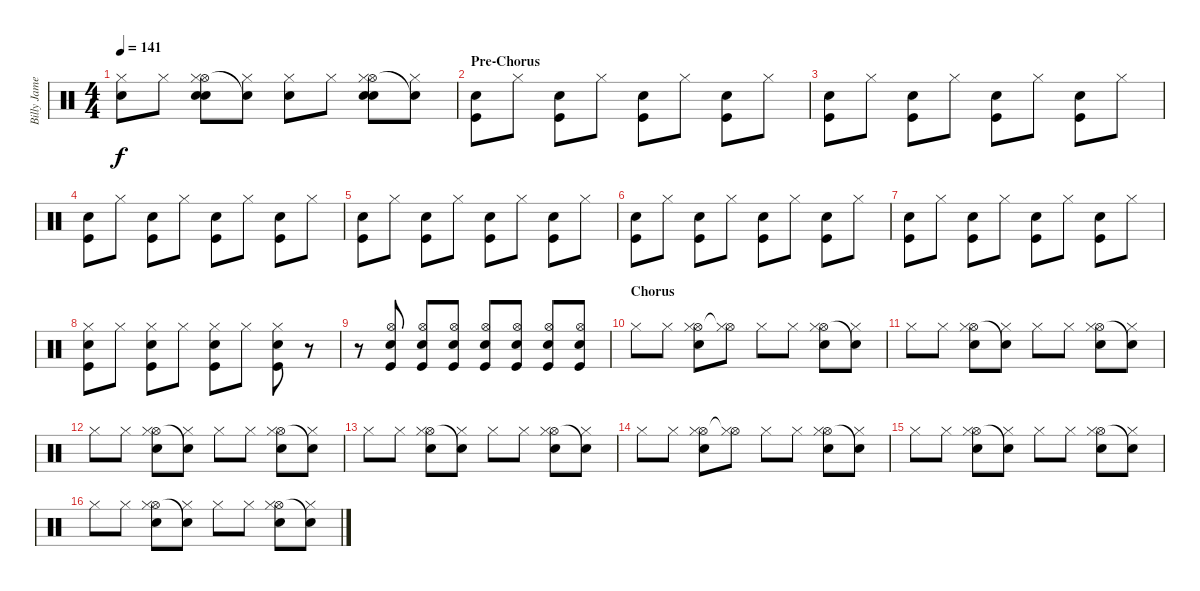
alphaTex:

\track ("Billy James (Drums)" "Billy Jame") {instrument percussion}
\staff {score}
\articulation defaults
\ts (4 4)
\tempo 141
\clef neutral
\ks c
("Hi-Hat (closed)" "Snare (hit) 2").8{dy f} "Hi-Hat (closed)".8 ("Hi-Hat (open)" "Snare (hit) 2" "Hi-Hat (closed)" "Snare (hit) 2").8 ("Snare (hit)"{t} "Hi-Hat (closed)").8 ("Hi-Hat (closed)" "Snare (hit) 2").8 "Hi-Hat (closed)".8 ("Hi-Hat (open)" "Snare (hit) 2" "Hi-Hat (closed)" "Snare (hit) 2").8 ("Snare (hit)"{t} "Hi-Hat (closed)").8 |
\section ("" "Pre-Chorus")
("Kick (hit)" "Snare (hit) 2").8 "Hi-Hat (closed)".8 ("Kick (hit)" "Snare (hit) 2").8 "Hi-Hat (closed)".8 ("Kick (hit)" "Snare (hit) 2").8 "Hi-Hat (closed)".8 ("Kick (hit)" "Snare (hit) 2").8 "Hi-Hat (closed)".8 |
("Kick (hit)" "Snare (hit) 2").8 "Hi-Hat (closed)".8 ("Kick (hit)" "Snare (hit) 2").8 "Hi-Hat (closed)".8 ("Kick (hit)" "Snare (hit) 2").8 "Hi-Hat (closed)".8 ("Kick (hit)" "Snare (hit) 2").8 "Hi-Hat (closed)".8 |
("Kick (hit)" "Snare (hit) 2").8 "Hi-Hat (closed)".8 ("Kick (hit)" "Snare (hit) 2").8 "Hi-Hat (closed)".8 ("Kick (hit)" "Snare (hit) 2").8 "Hi-Hat (closed)".8 ("Kick (hit)" "Snare (hit) 2").8 "Hi-Hat (closed)".8 |
("Kick (hit)" "Snare (hit) 2").8 "Hi-Hat (closed)".8 ("Kick (hit)" "Snare (hit) 2").8 "Hi-Hat (closed)".8 ("Kick (hit)" "Snare (hit) 2").8 "Hi-Hat (closed)".8 ("Kick (hit)" "Snare (hit) 2").8 "Hi-Hat (closed)".8 |
("Kick (hit)" "Snare (hit) 2").8 "Hi-Hat (closed)".8 ("Kick (hit)" "Snare (hit) 2").8 "Hi-Hat (closed)".8 ("Kick (hit)" "Snare (hit) 2").8 "Hi-Hat (closed)".8 ("Kick (hit)" "Snare (hit) 2").8 "Hi-Hat (closed)".8 |
("Kick (hit)" "Snare (hit) 2").8 "Hi-Hat (closed)".8 ("Kick (hit)" "Snare (hit) 2").8 "Hi-Hat (closed)".8 ("Kick (hit)" "Snare (hit) 2").8 "Hi-Hat (closed)".8 ("Kick (hit)" "Snare (hit) 2").8 "Hi-Hat (closed)".8 |
("Hi-Hat (closed)" "Kick (hit)" "Snare (hit) 2").8 "Hi-Hat (closed)".8 ("Hi-Hat (closed)" "Kick (hit)" "Snare (hit) 2").8 "Hi-Hat (closed)".8 ("Hi-Hat (closed)" "Kick (hit)" "Snare (hit) 2").8 "Hi-Hat (closed)".8 ("Hi-Hat (closed)" "Kick (hit)" "Snare (hit) 2").8 r.8 |
r.8 ("Hi-Hat (open)" "Snare (hit) 2" "Kick (hit)").8 ("Hi-Hat (open)" "Snare (hit) 2" "Kick (hit)").8 ("Hi-Hat (open)" "Snare (hit) 2" "Kick (hit)").8 ("Hi-Hat (open)" "Snare (hit) 2" "Kick (hit)").8 ("Hi-Hat (open)" "Snare (hit) 2" "Kick (hit)").8 ("Hi-Hat (open)" "Snare (hit) 2" "Kick (hit)").8 ("Hi-Hat (open)" "Snare (hit) 2" "Kick (hit)").8 |
\section ("" "Chorus")
"Hi-Hat (closed)".8 "Hi-Hat (closed)".8 ("Hi-Hat (open)" "Snare (hit) 2" "Hi-Hat (closed)").8 ("Hi-Hat (open)"{t} "Hi-Hat (closed)").8 "Hi-Hat (closed)".8 "Hi-Hat (closed)".8 ("Hi-Hat (open)" "Snare (hit) 2" "Hi-Hat (closed)").8 ("Snare (hit)"{t} "Hi-Hat (closed)").8 |
"Hi-Hat (closed)".8 "Hi-Hat (closed)".8 ("Hi-Hat (open)" "Snare (hit) 2" "Hi-Hat (closed)").8 ("Snare (hit)"{t} "Hi-Hat (closed)").8 "Hi-Hat (closed)".8 "Hi-Hat (closed)".8 ("Hi-Hat (open)" "Snare (hit) 2" "Hi-Hat (closed)").8 ("Snare (hit)"{t} "Hi-Hat (closed)").8 |
"Hi-Hat (closed)".8 "Hi-Hat (closed)".8 ("Hi-Hat (open)" "Snare (hit) 2" "Hi-Hat (closed)").8 ("Snare (hit)"{t} "Hi-Hat (closed)").8 "Hi-Hat (closed)".8 "Hi-Hat (closed)".8 ("Hi-Hat (open)" "Snare (hit) 2" "Hi-Hat (closed)").8 ("Snare (hit)"{t} "Hi-Hat (closed)").8 |
"Hi-Hat (closed)".8 "Hi-Hat (closed)".8 ("Hi-Hat (open)" "Snare (hit) 2" "Hi-Hat (closed)").8 ("Snare (hit)"{t} "Hi-Hat (closed)").8 "Hi-Hat (closed)".8 "Hi-Hat (closed)".8 ("Hi-Hat (open)" "Snare (hit) 2" "Hi-Hat (closed)").8 ("Snare (hit)"{t} "Hi-Hat (closed)").8 |
"Hi-Hat (closed)".8 "Hi-Hat (closed)".8 ("Hi-Hat (open)" "Snare (hit) 2" "Hi-Hat (closed)").8 ("Hi-Hat (open)"{t} "Hi-Hat (closed)").8 "Hi-Hat (closed)".8 "Hi-Hat (closed)".8 ("Hi-Hat (open)" "Snare (hit) 2" "Hi-Hat (closed)").8 ("Snare (hit)"{t} "Hi-Hat (closed)").8 |
"Hi-Hat (closed)".8 "Hi-Hat (closed)".8 ("Hi-Hat (open)" "Snare (hit) 2" "Hi-Hat (closed)").8 ("Snare (hit)"{t} "Hi-Hat (closed)").8 "Hi-Hat (closed)".8 "Hi-Hat (closed)".8 ("Hi-Hat (open)" "Snare (hit) 2" "Hi-Hat (closed)").8 ("Snare (hit)"{t} "Hi-Hat (closed)").8 |
"Hi-Hat (closed)".8 "Hi-Hat (closed)".8 ("Hi-Hat (open)" "Snare (hit) 2" "Hi-Hat (closed)").8 ("Snare (hit)"{t} "Hi-Hat (closed)").8 "Hi-Hat (closed)".8 "Hi-Hat (closed)".8 ("Hi-Hat (open)" "Snare (hit) 2" "Hi-Hat (closed)").8 ("Snare (hit)"{t} "Hi-Hat (closed)").8
